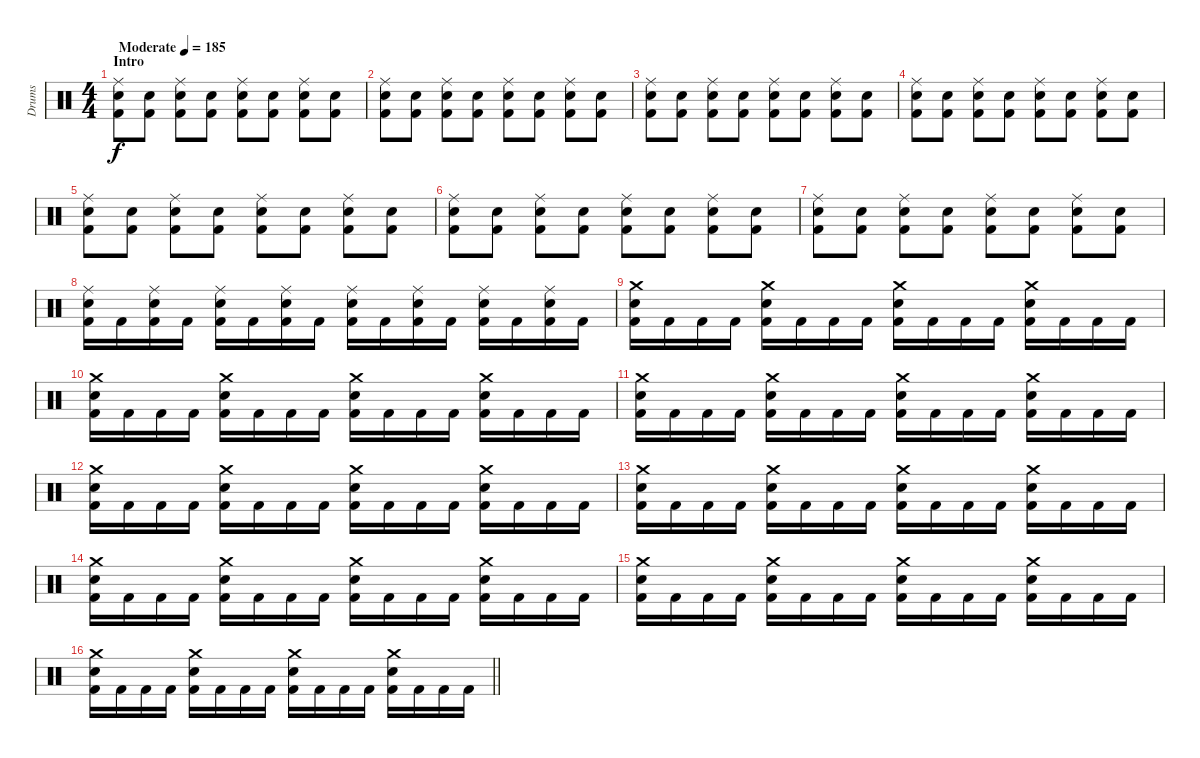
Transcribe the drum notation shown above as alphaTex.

\track ("Drums" "Drums") {instrument percussion}
\staff {score}
\articulation defaults
\ts (4 4)
\section ("" "Intro")
\tempo (185 "Moderate")
\clef neutral
\ks c
("Ride (middle)" "Snare (hit) 2" "Kick (hit) 2").8{dy f} ("Snare (hit) 2" "Kick (hit) 2").8 ("Ride (middle)" "Snare (hit) 2" "Kick (hit) 2").8 ("Snare (hit) 2" "Kick (hit) 2").8 ("Ride (middle)" "Snare (hit) 2" "Kick (hit) 2").8 ("Snare (hit) 2" "Kick (hit) 2").8 ("Ride (middle)" "Snare (hit) 2" "Kick (hit) 2").8 ("Snare (hit) 2" "Kick (hit) 2").8 |
("Ride (middle)" "Snare (hit) 2" "Kick (hit) 2").8 ("Snare (hit) 2" "Kick (hit) 2").8 ("Ride (middle)" "Snare (hit) 2" "Kick (hit) 2").8 ("Snare (hit) 2" "Kick (hit) 2").8 ("Ride (middle)" "Snare (hit) 2" "Kick (hit) 2").8 ("Snare (hit) 2" "Kick (hit) 2").8 ("Ride (middle)" "Snare (hit) 2" "Kick (hit) 2").8 ("Snare (hit) 2" "Kick (hit) 2").8 |
("Ride (middle)" "Snare (hit) 2" "Kick (hit) 2").8 ("Snare (hit) 2" "Kick (hit) 2").8 ("Ride (middle)" "Snare (hit) 2" "Kick (hit) 2").8 ("Snare (hit) 2" "Kick (hit) 2").8 ("Ride (middle)" "Snare (hit) 2" "Kick (hit) 2").8 ("Snare (hit) 2" "Kick (hit) 2").8 ("Ride (middle)" "Snare (hit) 2" "Kick (hit) 2").8 ("Snare (hit) 2" "Kick (hit) 2").8 |
("Ride (middle)" "Snare (hit) 2" "Kick (hit) 2").8 ("Snare (hit) 2" "Kick (hit) 2").8 ("Ride (middle)" "Snare (hit) 2" "Kick (hit) 2").8 ("Snare (hit) 2" "Kick (hit) 2").8 ("Ride (middle)" "Snare (hit) 2" "Kick (hit) 2").8 ("Snare (hit) 2" "Kick (hit) 2").8 ("Ride (middle)" "Snare (hit) 2" "Kick (hit) 2").8 ("Snare (hit) 2" "Kick (hit) 2").8 |
("Ride (middle)" "Snare (hit) 2" "Kick (hit) 2").8 ("Snare (hit) 2" "Kick (hit) 2").8 ("Ride (middle)" "Snare (hit) 2" "Kick (hit) 2").8 ("Snare (hit) 2" "Kick (hit) 2").8 ("Ride (middle)" "Snare (hit) 2" "Kick (hit) 2").8 ("Snare (hit) 2" "Kick (hit) 2").8 ("Ride (middle)" "Snare (hit) 2" "Kick (hit) 2").8 ("Snare (hit) 2" "Kick (hit) 2").8 |
("Ride (middle)" "Snare (hit) 2" "Kick (hit) 2").8 ("Snare (hit) 2" "Kick (hit) 2").8 ("Ride (middle)" "Snare (hit) 2" "Kick (hit) 2").8 ("Snare (hit) 2" "Kick (hit) 2").8 ("Ride (middle)" "Snare (hit) 2" "Kick (hit) 2").8 ("Snare (hit) 2" "Kick (hit) 2").8 ("Ride (middle)" "Snare (hit) 2" "Kick (hit) 2").8 ("Snare (hit) 2" "Kick (hit) 2").8 |
("Ride (middle)" "Snare (hit) 2" "Kick (hit) 2").8 ("Snare (hit) 2" "Kick (hit) 2").8 ("Ride (middle)" "Snare (hit) 2" "Kick (hit) 2").8 ("Snare (hit) 2" "Kick (hit) 2").8 ("Ride (middle)" "Snare (hit) 2" "Kick (hit) 2").8 ("Snare (hit) 2" "Kick (hit) 2").8 ("Ride (middle)" "Snare (hit) 2" "Kick (hit) 2").8 ("Snare (hit) 2" "Kick (hit) 2").8 |
("Ride (middle)" "Snare (hit) 2" "Kick (hit) 2").16 "Kick (hit) 2".16 ("Ride (middle)" "Snare (hit) 2" "Kick (hit) 2").16 "Kick (hit) 2".16 ("Ride (middle)" "Snare (hit) 2" "Kick (hit) 2").16 "Kick (hit) 2".16 ("Ride (middle)" "Snare (hit) 2" "Kick (hit) 2").16 "Kick (hit) 2".16 ("Ride (middle)" "Snare (hit) 2" "Kick (hit) 2").16 "Kick (hit) 2".16 ("Ride (middle)" "Snare (hit) 2" "Kick (hit) 2").16 "Kick (hit) 2".16 ("Ride (middle)" "Snare (hit) 2" "Kick (hit) 2").16 "Kick (hit) 2".16 ("Ride (middle)" "Snare (hit) 2" "Kick (hit) 2").16 "Kick (hit) 2".16 |
("Crash medium (hit)" "Snare (hit) 2" "Kick (hit) 2").16 "Kick (hit) 2".16 "Kick (hit) 2".16 "Kick (hit) 2".16 ("Crash medium (hit)" "Snare (hit) 2" "Kick (hit) 2").16 "Kick (hit) 2".16 "Kick (hit) 2".16 "Kick (hit) 2".16 ("Crash medium (hit)" "Snare (hit) 2" "Kick (hit) 2").16 "Kick (hit) 2".16 "Kick (hit) 2".16 "Kick (hit) 2".16 ("Crash medium (hit)" "Snare (hit) 2" "Kick (hit) 2").16 "Kick (hit) 2".16 "Kick (hit) 2".16 "Kick (hit) 2".16 |
("Crash medium (hit)" "Snare (hit) 2" "Kick (hit) 2").16 "Kick (hit) 2".16 "Kick (hit) 2".16 "Kick (hit) 2".16 ("Crash medium (hit)" "Snare (hit) 2" "Kick (hit) 2").16 "Kick (hit) 2".16 "Kick (hit) 2".16 "Kick (hit) 2".16 ("Crash medium (hit)" "Snare (hit) 2" "Kick (hit) 2").16 "Kick (hit) 2".16 "Kick (hit) 2".16 "Kick (hit) 2".16 ("Crash medium (hit)" "Snare (hit) 2" "Kick (hit) 2").16 "Kick (hit) 2".16 "Kick (hit) 2".16 "Kick (hit) 2".16 |
("Crash medium (hit)" "Snare (hit) 2" "Kick (hit) 2").16 "Kick (hit) 2".16 "Kick (hit) 2".16 "Kick (hit) 2".16 ("Crash medium (hit)" "Snare (hit) 2" "Kick (hit) 2").16 "Kick (hit) 2".16 "Kick (hit) 2".16 "Kick (hit) 2".16 ("Crash medium (hit)" "Snare (hit) 2" "Kick (hit) 2").16 "Kick (hit) 2".16 "Kick (hit) 2".16 "Kick (hit) 2".16 ("Crash medium (hit)" "Snare (hit) 2" "Kick (hit) 2").16 "Kick (hit) 2".16 "Kick (hit) 2".16 "Kick (hit) 2".16 |
("Crash medium (hit)" "Snare (hit) 2" "Kick (hit) 2").16 "Kick (hit) 2".16 "Kick (hit) 2".16 "Kick (hit) 2".16 ("Crash medium (hit)" "Snare (hit) 2" "Kick (hit) 2").16 "Kick (hit) 2".16 "Kick (hit) 2".16 "Kick (hit) 2".16 ("Crash medium (hit)" "Snare (hit) 2" "Kick (hit) 2").16 "Kick (hit) 2".16 "Kick (hit) 2".16 "Kick (hit) 2".16 ("Crash medium (hit)" "Snare (hit) 2" "Kick (hit) 2").16 "Kick (hit) 2".16 "Kick (hit) 2".16 "Kick (hit) 2".16 |
("Crash medium (hit)" "Snare (hit) 2" "Kick (hit) 2").16 "Kick (hit) 2".16 "Kick (hit) 2".16 "Kick (hit) 2".16 ("Crash medium (hit)" "Snare (hit) 2" "Kick (hit) 2").16 "Kick (hit) 2".16 "Kick (hit) 2".16 "Kick (hit) 2".16 ("Crash medium (hit)" "Snare (hit) 2" "Kick (hit) 2").16 "Kick (hit) 2".16 "Kick (hit) 2".16 "Kick (hit) 2".16 ("Crash medium (hit)" "Snare (hit) 2" "Kick (hit) 2").16 "Kick (hit) 2".16 "Kick (hit) 2".16 "Kick (hit) 2".16 |
("Crash medium (hit)" "Snare (hit) 2" "Kick (hit) 2").16 "Kick (hit) 2".16 "Kick (hit) 2".16 "Kick (hit) 2".16 ("Crash medium (hit)" "Snare (hit) 2" "Kick (hit) 2").16 "Kick (hit) 2".16 "Kick (hit) 2".16 "Kick (hit) 2".16 ("Crash medium (hit)" "Snare (hit) 2" "Kick (hit) 2").16 "Kick (hit) 2".16 "Kick (hit) 2".16 "Kick (hit) 2".16 ("Crash medium (hit)" "Snare (hit) 2" "Kick (hit) 2").16 "Kick (hit) 2".16 "Kick (hit) 2".16 "Kick (hit) 2".16 |
("Crash medium (hit)" "Snare (hit) 2" "Kick (hit) 2").16 "Kick (hit) 2".16 "Kick (hit) 2".16 "Kick (hit) 2".16 ("Crash medium (hit)" "Snare (hit) 2" "Kick (hit) 2").16 "Kick (hit) 2".16 "Kick (hit) 2".16 "Kick (hit) 2".16 ("Crash medium (hit)" "Snare (hit) 2" "Kick (hit) 2").16 "Kick (hit) 2".16 "Kick (hit) 2".16 "Kick (hit) 2".16 ("Crash medium (hit)" "Snare (hit) 2" "Kick (hit) 2").16 "Kick (hit) 2".16 "Kick (hit) 2".16 "Kick (hit) 2".16 |
\barLineRight lightlight
("Crash medium (hit)" "Snare (hit) 2" "Kick (hit) 2").16 "Kick (hit) 2".16 "Kick (hit) 2".16 "Kick (hit) 2".16 ("Crash medium (hit)" "Snare (hit) 2" "Kick (hit) 2").16 "Kick (hit) 2".16 "Kick (hit) 2".16 "Kick (hit) 2".16 ("Crash medium (hit)" "Snare (hit) 2" "Kick (hit) 2").16 "Kick (hit) 2".16 "Kick (hit) 2".16 "Kick (hit) 2".16 ("Crash medium (hit)" "Snare (hit) 2" "Kick (hit) 2").16 "Kick (hit) 2".16 "Kick (hit) 2".16 "Kick (hit) 2".16
